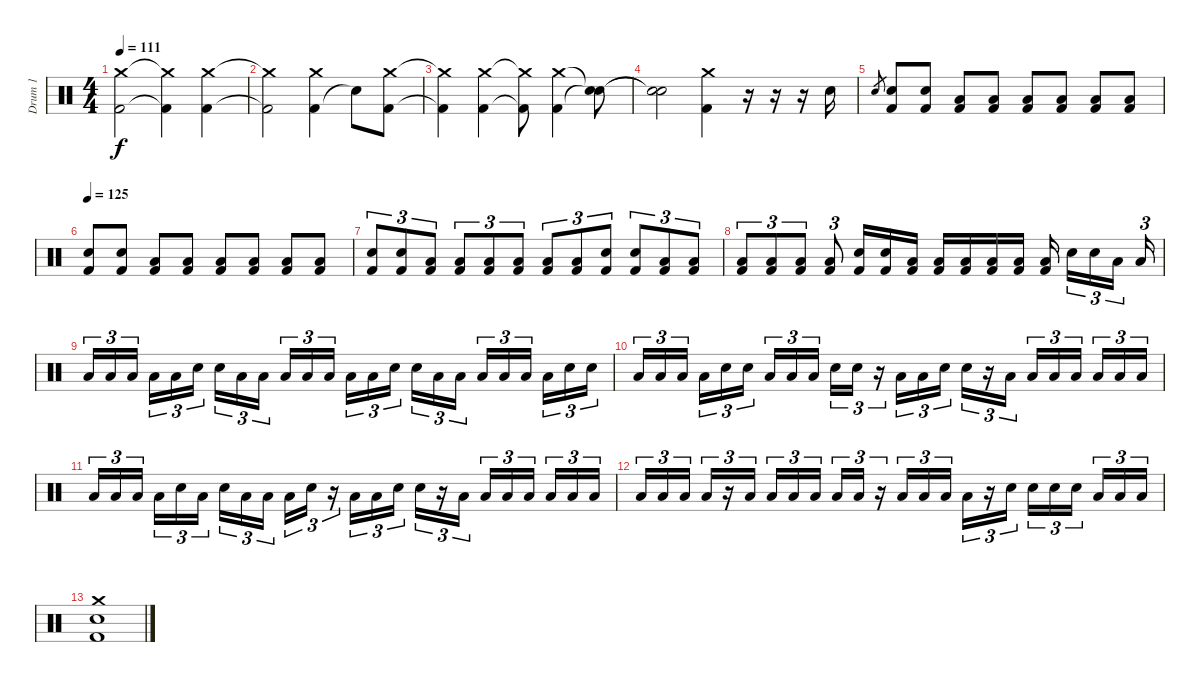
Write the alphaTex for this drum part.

\track ("Drum 1" "Drum 1") {instrument percussion}
\staff {score}
\articulation defaults
\ts (4 4)
\tempo 111
\clef neutral
\ks c
("Kick (hit) 2" "Crash medium (hit)").2{dy f} ("Kick (hit) 2"{t} "Crash medium (hit)"{t}).4 ("Kick (hit) 2" "Crash medium (hit)").4 |
("Kick (hit) 2"{t} "Crash medium (hit)"{t}).2 ("Kick (hit) 2" "Crash medium (hit)").4 "Snare (hit)"{t}.8 ("Kick (hit) 2" "Crash medium (hit)").8 |
("Kick (hit) 2"{t} "Crash medium (hit)"{t}).4 ("Kick (hit) 2" "Crash medium (hit)").4 ("Kick (hit) 2"{t} "Crash medium (hit)"{t}).8 ("Kick (hit) 2" "Crash medium (hit)").4 ("Snare (hit)"{t} "Snare (hit)"{t}).8 |
("Snare (hit)"{t} "Snare (hit)"{t}).2 ("Kick (hit) 2" "Crash medium (hit)").4 r.16 r.16 r.16 "Electric Snare (hit)".16 |
"Electric Snare (hit)".8{gr} ("Electric Snare (hit)" "Kick (hit) 2").8 ("Electric Snare (hit)" "Kick (hit) 2").8 ("Low Tom (hit)" "Kick (hit) 2").8 ("Low Tom (hit)" "Kick (hit) 2").8 ("Low Tom (hit)" "Kick (hit) 2").8 ("Low Tom (hit)" "Kick (hit) 2").8 ("Low Tom (hit)" "Kick (hit) 2").8 ("Low Tom (hit)" "Kick (hit) 2").8 |
\tempo 125
("Electric Snare (hit)" "Kick (hit) 2").8 ("Electric Snare (hit)" "Kick (hit) 2").8 ("Low Tom (hit)" "Kick (hit) 2").8 ("Low Tom (hit)" "Kick (hit) 2").8 ("Low Tom (hit)" "Kick (hit) 2").8 ("Low Tom (hit)" "Kick (hit) 2").8 ("Low Tom (hit)" "Kick (hit) 2").8 ("Low Tom (hit)" "Kick (hit) 2").8 |
("Electric Snare (hit)" "Kick (hit) 2").8{tu (3 2)} ("Electric Snare (hit)" "Kick (hit) 2").8{tu (3 2)} ("Low Tom (hit)" "Kick (hit) 2").8{tu (3 2)} ("Low Tom (hit)" "Kick (hit) 2").8{tu (3 2)} ("Low Tom (hit)" "Kick (hit) 2").8{tu (3 2)} ("Low Tom (hit)" "Kick (hit) 2").8{tu (3 2)} ("Low Tom (hit)" "Kick (hit) 2").8{tu (3 2)} ("Low Tom (hit)" "Kick (hit) 2").8{tu (3 2)} ("Electric Snare (hit)" "Kick (hit) 2").8{tu (3 2)} ("Electric Snare (hit)" "Kick (hit) 2").8{tu (3 2)} ("Low Tom (hit)" "Kick (hit) 2").8{tu (3 2)} ("Low Tom (hit)" "Kick (hit) 2").8{tu (3 2)} |
("Low Tom (hit)" "Kick (hit) 2").8{tu (3 2)} ("Low Tom (hit)" "Kick (hit) 2").8{tu (3 2)} ("Low Tom (hit)" "Kick (hit) 2").8{tu (3 2)} ("Low Tom (hit)" "Kick (hit) 2").8{tu (3 2)} ("Electric Snare (hit)" "Kick (hit) 2").16 ("Electric Snare (hit)" "Kick (hit) 2").16 ("Low Tom (hit)" "Kick (hit) 2").16 ("Low Tom (hit)" "Kick (hit) 2").16 ("Low Tom (hit)" "Kick (hit) 2").16 ("Low Tom (hit)" "Kick (hit) 2").16 ("Low Tom (hit)" "Kick (hit) 2").16 ("Low Tom (hit)" "Kick (hit) 2").16 "Electric Snare (hit)".16{tu (3 2)} "Electric Snare (hit)".16{tu (3 2)} "Low Tom (hit)".16{tu (3 2)} "Low Tom (hit)".16{tu (3 2)} |
"Low Tom (hit)".16{tu (3 2)} "Low Tom (hit)".16{tu (3 2)} "Low Tom (hit)".16{tu (3 2)} "Low Tom (hit)".16{tu (3 2)} "Low Tom (hit)".16{tu (3 2)} "Electric Snare (hit)".16{tu (3 2)} "Electric Snare (hit)".16{tu (3 2)} "Low Tom (hit)".16{tu (3 2)} "Low Tom (hit)".16{tu (3 2)} "Low Tom (hit)".16{tu (3 2)} "Low Tom (hit)".16{tu (3 2)} "Low Tom (hit)".16{tu (3 2)} "Low Tom (hit)".16{tu (3 2)} "Low Tom (hit)".16{tu (3 2)} "Electric Snare (hit)".16{tu (3 2)} "Electric Snare (hit)".16{tu (3 2)} "Low Tom (hit)".16{tu (3 2)} "Low Tom (hit)".16{tu (3 2)} "Low Tom (hit)".16{tu (3 2)} "Low Tom (hit)".16{tu (3 2)} "Low Tom (hit)".16{tu (3 2)} "Low Tom (hit)".16{tu (3 2)} "Electric Snare (hit)".16{tu (3 2)} "Electric Snare (hit)".16{tu (3 2)} |
"Low Tom (hit)".16{tu (3 2)} "Low Tom (hit)".16{tu (3 2)} "Low Tom (hit)".16{tu (3 2)} "Low Tom (hit)".16{tu (3 2)} "Electric Snare (hit)".16{tu (3 2) volume 13} "Electric Snare (hit)".16{tu (3 2)} "Low Tom (hit)".16{tu (3 2) volume 10} "Low Tom (hit)".16{tu (3 2)} "Low Tom (hit)".16{tu (3 2)} "Electric Snare (hit)".16{tu (3 2) volume 13} "Electric Snare (hit)".16{tu (3 2)} r.16{tu (3 2)} "Low Tom (hit)".16{tu (3 2) volume 10} "Low Tom (hit)".16{tu (3 2)} "Electric Snare (hit)".16{tu (3 2) volume 13} "Electric Snare (hit)".16{tu (3 2)} r.16{tu (3 2)} "Low Tom (hit)".16{tu (3 2) volume 10} "Low Tom (hit)".16{tu (3 2)} "Low Tom (hit)".16{tu (3 2)} "Low Tom (hit)".16{tu (3 2)} "Low Tom (hit)".16{tu (3 2)} "Low Tom (hit)".16{tu (3 2)} "Low Tom (hit)".16{tu (3 2)} |
"Low Tom (hit)".16{tu (3 2)} "Low Tom (hit)".16{tu (3 2)} "Low Tom (hit)".16{tu (3 2)} "Low Tom (hit)".16{tu (3 2)} "Electric Snare (hit)".16{tu (3 2) volume 13} "Low Tom (hit)".16{tu (3 2)} "Electric Snare (hit)".16{tu (3 2) volume 10} "Low Tom (hit)".16{tu (3 2)} "Low Tom (hit)".16{tu (3 2)} "Low Tom (hit)".16{tu (3 2) volume 13} "Electric Snare (hit)".16{tu (3 2)} r.16{tu (3 2)} "Low Tom (hit)".16{tu (3 2) volume 10} "Low Tom (hit)".16{tu (3 2)} "Electric Snare (hit)".16{tu (3 2) volume 13} "Electric Snare (hit)".16{tu (3 2)} r.16{tu (3 2)} "Low Tom (hit)".16{tu (3 2) volume 10} "Low Tom (hit)".16{tu (3 2)} "Low Tom (hit)".16{tu (3 2)} "Low Tom (hit)".16{tu (3 2)} "Low Tom (hit)".16{tu (3 2)} "Low Tom (hit)".16{tu (3 2)} "Low Tom (hit)".16{tu (3 2)} |
"Low Tom (hit)".16{tu (3 2)} "Low Tom (hit)".16{tu (3 2)} "Low Tom (hit)".16{tu (3 2)} "Low Tom (hit)".16{tu (3 2)} r.16{tu (3 2)} "Low Tom (hit)".16{tu (3 2)} "Low Tom (hit)".16{tu (3 2)} "Low Tom (hit)".16{tu (3 2)} "Low Tom (hit)".16{tu (3 2)} "Low Tom (hit)".16{tu (3 2)} "Low Tom (hit)".16{tu (3 2)} r.16{tu (3 2)} "Low Tom (hit)".16{tu (3 2)} "Low Tom (hit)".16{tu (3 2)} "Low Tom (hit)".16{tu (3 2)} "Low Tom (hit)".16{tu (3 2)} r.16{tu (3 2)} "Electric Snare (hit)".16{tu (3 2) volume 13} "Electric Snare (hit)".16{tu (3 2)} "Electric Snare (hit)".16{tu (3 2)} "Electric Snare (hit)".16{tu (3 2)} "Low Tom (hit)".16{tu (3 2)} "Low Tom (hit)".16{tu (3 2)} "Low Tom (hit)".16{tu (3 2)} |
("Electric Snare (hit)" "Kick (hit) 2" "Crash medium (hit)").1
